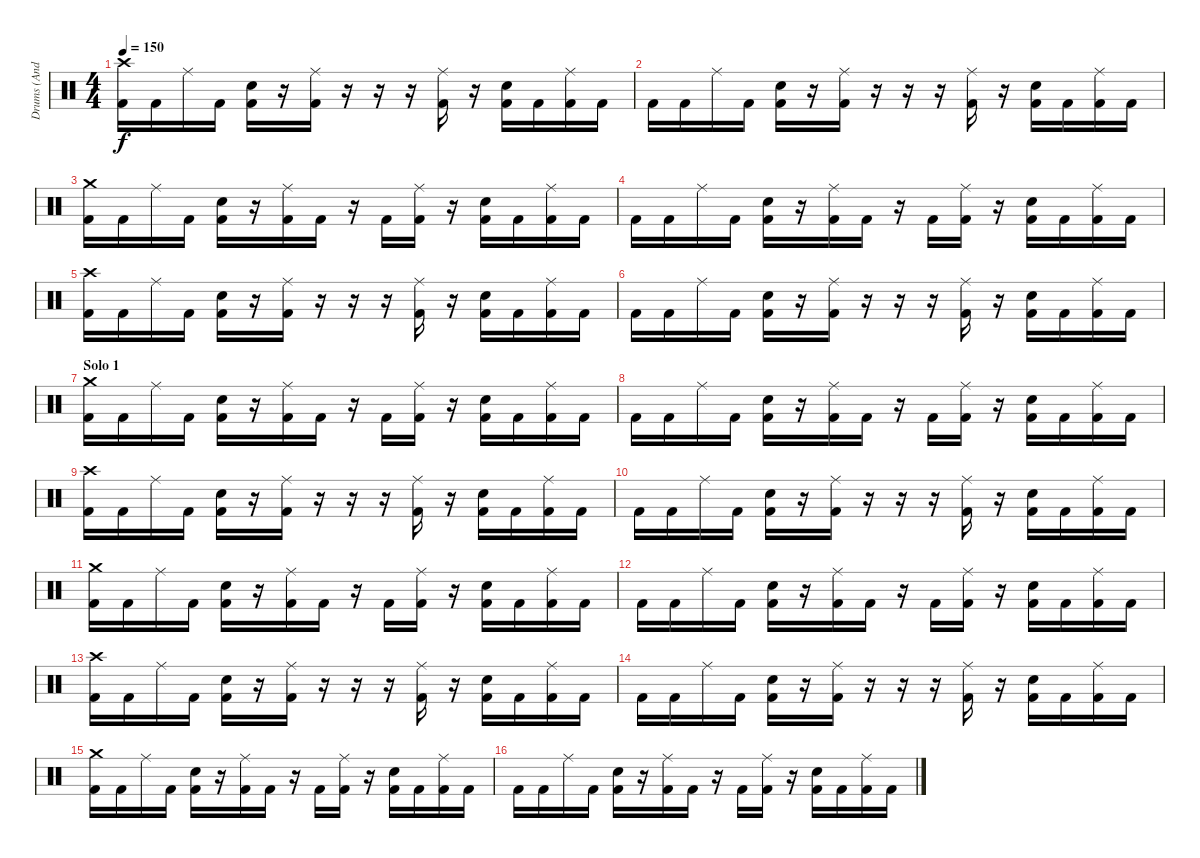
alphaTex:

\track ("Drums (Andy C)" "Drums (And") {instrument percussion}
\staff {score}
\articulation defaults
\ts (4 4)
\tempo 150
\clef neutral
\ks c
("Crash high (hit)" "Kick (hit) 2").16{dy f} "Kick (hit) 2".16 "Ride (middle)".16 "Kick (hit) 2".16 ("Kick (hit) 2" "Electric Snare (hit)").16 r.16 ("Ride (middle)" "Kick (hit) 2").16 r.16 r.16 r.16 ("Ride (middle)" "Kick (hit) 2").16 r.16 ("Kick (hit) 2" "Electric Snare (hit)").16 "Kick (hit) 2".16 ("Ride (middle)" "Kick (hit) 2").16 "Kick (hit) 2".16 |
"Kick (hit) 2".16 "Kick (hit) 2".16 "Ride (middle)".16 "Kick (hit) 2".16 ("Kick (hit) 2" "Electric Snare (hit)").16 r.16 ("Ride (middle)" "Kick (hit) 2").16 r.16 r.16 r.16 ("Ride (middle)" "Kick (hit) 2").16 r.16 ("Kick (hit) 2" "Electric Snare (hit)").16 "Kick (hit) 2".16 ("Ride (middle)" "Kick (hit) 2").16 "Kick (hit) 2".16 |
("Crash medium (hit)" "Kick (hit) 2").16 "Kick (hit) 2".16 "Ride (middle)".16 "Kick (hit) 2".16 ("Kick (hit) 2" "Electric Snare (hit)").16 r.16 ("Ride (middle)" "Kick (hit) 2").16 "Kick (hit) 2".16 r.16 "Kick (hit) 2".16 ("Ride (middle)" "Kick (hit) 2").16 r.16 ("Kick (hit) 2" "Electric Snare (hit)").16 "Kick (hit) 2".16 ("Ride (middle)" "Kick (hit) 2").16 "Kick (hit) 2".16 |
"Kick (hit) 2".16 "Kick (hit) 2".16 "Ride (middle)".16 "Kick (hit) 2".16 ("Electric Snare (hit)" "Kick (hit) 2").16 r.16 ("Ride (middle)" "Kick (hit) 2").16 "Kick (hit) 2".16 r.16 "Kick (hit) 2".16 ("Ride (middle)" "Kick (hit) 2").16 r.16 ("Kick (hit) 2" "Electric Snare (hit)").16 "Kick (hit) 2".16 ("Ride (middle)" "Kick (hit) 2").16 "Kick (hit) 2".16 |
("Crash high (hit)" "Kick (hit) 2").16 "Kick (hit) 2".16 "Ride (middle)".16 "Kick (hit) 2".16 ("Kick (hit) 2" "Electric Snare (hit)").16 r.16 ("Ride (middle)" "Kick (hit) 2").16 r.16 r.16 r.16 ("Ride (middle)" "Kick (hit) 2").16 r.16 ("Kick (hit) 2" "Electric Snare (hit)").16 "Kick (hit) 2".16 ("Ride (middle)" "Kick (hit) 2").16 "Kick (hit) 2".16 |
"Kick (hit) 2".16 "Kick (hit) 2".16 "Ride (middle)".16 "Kick (hit) 2".16 ("Kick (hit) 2" "Electric Snare (hit)").16 r.16 ("Ride (middle)" "Kick (hit) 2").16 r.16 r.16 r.16 ("Ride (middle)" "Kick (hit) 2").16 r.16 ("Kick (hit) 2" "Electric Snare (hit)").16 "Kick (hit) 2".16 ("Ride (middle)" "Kick (hit) 2").16 "Kick (hit) 2".16 |
\section ("" "Solo 1")
("Crash medium (hit)" "Kick (hit) 2").16 "Kick (hit) 2".16 "Ride (middle)".16 "Kick (hit) 2".16 ("Kick (hit) 2" "Electric Snare (hit)").16 r.16 ("Ride (middle)" "Kick (hit) 2").16 "Kick (hit) 2".16 r.16 "Kick (hit) 2".16 ("Ride (middle)" "Kick (hit) 2").16 r.16 ("Kick (hit) 2" "Electric Snare (hit)").16 "Kick (hit) 2".16 ("Ride (middle)" "Kick (hit) 2").16 "Kick (hit) 2".16 |
"Kick (hit) 2".16 "Kick (hit) 2".16 "Ride (middle)".16 "Kick (hit) 2".16 ("Kick (hit) 2" "Electric Snare (hit)").16 r.16 ("Ride (middle)" "Kick (hit) 2").16 "Kick (hit) 2".16 r.16 "Kick (hit) 2".16 ("Ride (middle)" "Kick (hit) 2").16 r.16 ("Kick (hit) 2" "Electric Snare (hit)").16 "Kick (hit) 2".16 ("Ride (middle)" "Kick (hit) 2").16 "Kick (hit) 2".16 |
("Crash high (hit)" "Kick (hit) 2").16 "Kick (hit) 2".16 "Ride (middle)".16 "Kick (hit) 2".16 ("Kick (hit) 2" "Electric Snare (hit)").16 r.16 ("Ride (middle)" "Kick (hit) 2").16 r.16 r.16 r.16 ("Ride (middle)" "Kick (hit) 2").16 r.16 ("Kick (hit) 2" "Electric Snare (hit)").16 "Kick (hit) 2".16 ("Ride (middle)" "Kick (hit) 2").16 "Kick (hit) 2".16 |
"Kick (hit) 2".16 "Kick (hit) 2".16 "Ride (middle)".16 "Kick (hit) 2".16 ("Kick (hit) 2" "Electric Snare (hit)").16 r.16 ("Ride (middle)" "Kick (hit) 2").16 r.16 r.16 r.16 ("Ride (middle)" "Kick (hit) 2").16 r.16 ("Kick (hit) 2" "Electric Snare (hit)").16 "Kick (hit) 2".16 ("Ride (middle)" "Kick (hit) 2").16 "Kick (hit) 2".16 |
("Crash medium (hit)" "Kick (hit) 2").16 "Kick (hit) 2".16 "Ride (middle)".16 "Kick (hit) 2".16 ("Kick (hit) 2" "Electric Snare (hit)").16 r.16 ("Ride (middle)" "Kick (hit) 2").16 "Kick (hit) 2".16 r.16 "Kick (hit) 2".16 ("Ride (middle)" "Kick (hit) 2").16 r.16 ("Kick (hit) 2" "Electric Snare (hit)").16 "Kick (hit) 2".16 ("Ride (middle)" "Kick (hit) 2").16 "Kick (hit) 2".16 |
"Kick (hit) 2".16 "Kick (hit) 2".16 "Ride (middle)".16 "Kick (hit) 2".16 ("Kick (hit) 2" "Electric Snare (hit)").16 r.16 ("Ride (middle)" "Kick (hit) 2").16 "Kick (hit) 2".16 r.16 "Kick (hit) 2".16 ("Ride (middle)" "Kick (hit) 2").16 r.16 ("Kick (hit) 2" "Electric Snare (hit)").16 "Kick (hit) 2".16 ("Ride (middle)" "Kick (hit) 2").16 "Kick (hit) 2".16 |
("Crash high (hit)" "Kick (hit) 2").16 "Kick (hit) 2".16 "Ride (middle)".16 "Kick (hit) 2".16 ("Kick (hit) 2" "Electric Snare (hit)").16 r.16 ("Ride (middle)" "Kick (hit) 2").16 r.16 r.16 r.16 ("Ride (middle)" "Kick (hit) 2").16 r.16 ("Kick (hit) 2" "Electric Snare (hit)").16 "Kick (hit) 2".16 ("Ride (middle)" "Kick (hit) 2").16 "Kick (hit) 2".16 |
"Kick (hit) 2".16 "Kick (hit) 2".16 "Ride (middle)".16 "Kick (hit) 2".16 ("Kick (hit) 2" "Electric Snare (hit)").16 r.16 ("Ride (middle)" "Kick (hit) 2").16 r.16 r.16 r.16 ("Ride (middle)" "Kick (hit) 2").16 r.16 ("Kick (hit) 2" "Electric Snare (hit)").16 "Kick (hit) 2".16 ("Ride (middle)" "Kick (hit) 2").16 "Kick (hit) 2".16 |
("Crash medium (hit)" "Kick (hit) 2").16 "Kick (hit) 2".16 "Ride (middle)".16 "Kick (hit) 2".16 ("Kick (hit) 2" "Electric Snare (hit)").16 r.16 ("Ride (middle)" "Kick (hit) 2").16 "Kick (hit) 2".16 r.16 "Kick (hit) 2".16 ("Ride (middle)" "Kick (hit) 2").16 r.16 ("Kick (hit) 2" "Electric Snare (hit)").16 "Kick (hit) 2".16 ("Ride (middle)" "Kick (hit) 2").16 "Kick (hit) 2".16 |
"Kick (hit) 2".16 "Kick (hit) 2".16 "Ride (middle)".16 "Kick (hit) 2".16 ("Kick (hit) 2" "Electric Snare (hit)").16 r.16 ("Ride (middle)" "Kick (hit) 2").16 "Kick (hit) 2".16 r.16 "Kick (hit) 2".16 ("Ride (middle)" "Kick (hit) 2").16 r.16 ("Kick (hit) 2" "Electric Snare (hit)").16 "Kick (hit) 2".16 ("Ride (middle)" "Kick (hit) 2").16 "Kick (hit) 2".16
